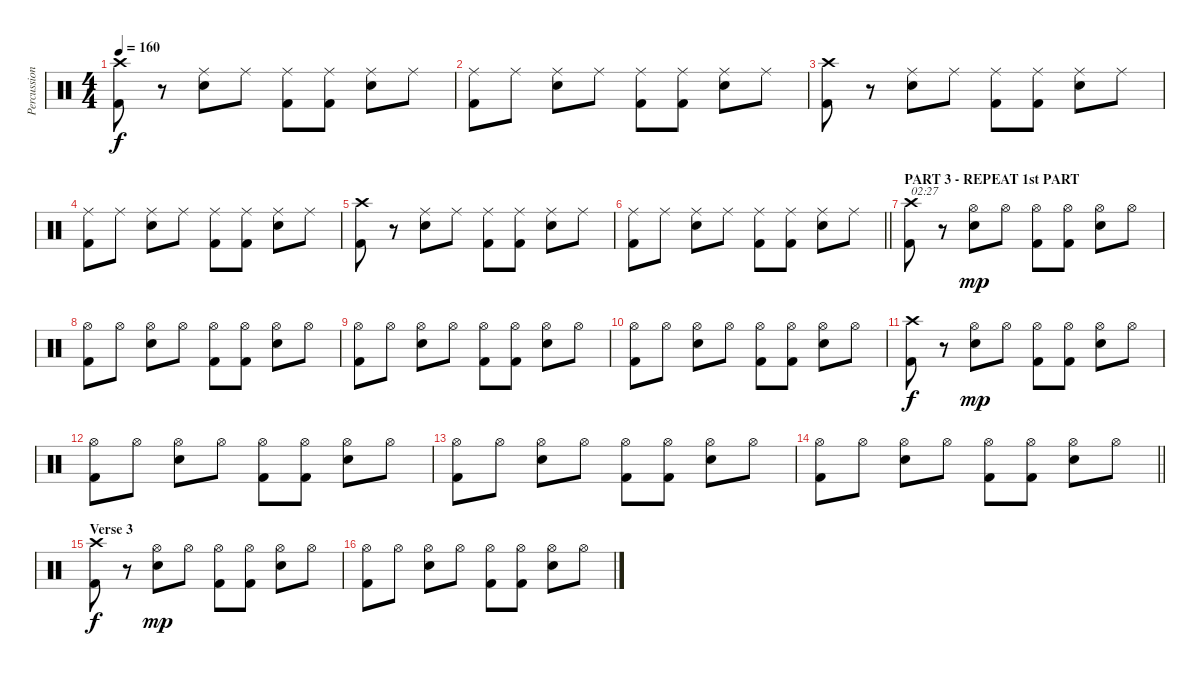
\track ("Percussion - album" "Percussion") {mute instrument percussion}
\staff {score}
\articulation defaults
\ts (4 4)
\tempo 160
\clef neutral
\ks c
("Crash high (hit)" "Kick (hit) 2").8{dy f} r.8 ("Ride (middle)" "Snare (hit) 2").8 "Ride (middle)".8 ("Ride (middle)" "Kick (hit) 2").8 ("Ride (middle)" "Kick (hit) 2").8 ("Ride (middle)" "Snare (hit) 2").8 "Ride (middle)".8 |
("Ride (middle)" "Kick (hit) 2").8 "Ride (middle)".8 ("Ride (middle)" "Snare (hit) 2").8 "Ride (middle)".8 ("Ride (middle)" "Kick (hit) 2").8 ("Ride (middle)" "Kick (hit) 2").8 ("Ride (middle)" "Snare (hit) 2").8 "Ride (middle)".8 |
("Crash high (hit)" "Kick (hit) 2").8 r.8 ("Ride (middle)" "Snare (hit) 2").8 "Ride (middle)".8 ("Ride (middle)" "Kick (hit) 2").8 ("Ride (middle)" "Kick (hit) 2").8 ("Ride (middle)" "Snare (hit) 2").8 "Ride (middle)".8 |
("Ride (middle)" "Kick (hit) 2").8 "Ride (middle)".8 ("Ride (middle)" "Snare (hit) 2").8 "Ride (middle)".8 ("Ride (middle)" "Kick (hit) 2").8 ("Ride (middle)" "Kick (hit) 2").8 ("Ride (middle)" "Snare (hit) 2").8 "Ride (middle)".8 |
("Crash high (hit)" "Kick (hit) 2").8 r.8 ("Ride (middle)" "Snare (hit) 2").8 "Ride (middle)".8 ("Ride (middle)" "Kick (hit) 2").8 ("Ride (middle)" "Kick (hit) 2").8 ("Ride (middle)" "Snare (hit) 2").8 "Ride (middle)".8 |
\barLineRight lightlight
("Ride (middle)" "Kick (hit) 2").8 "Ride (middle)".8 ("Ride (middle)" "Snare (hit) 2").8 "Ride (middle)".8 ("Ride (middle)" "Kick (hit) 2").8 ("Ride (middle)" "Kick (hit) 2").8 ("Ride (middle)" "Snare (hit) 2").8 "Ride (middle)".8 |
\section ("" "PART 3 - REPEAT 1st PART")
("Crash high (hit)" "Kick (hit) 2").8{txt "02:27"} r.8 ("Hi-Hat (open)" "Snare (hit) 2").8{dy mp} "Hi-Hat (open)".8 ("Hi-Hat (open)" "Kick (hit) 2").8 ("Hi-Hat (open)" "Kick (hit) 2").8 ("Hi-Hat (open)" "Snare (hit) 2").8 "Hi-Hat (open)".8 |
("Hi-Hat (open)" "Kick (hit) 2").8 "Hi-Hat (open)".8 ("Hi-Hat (open)" "Snare (hit) 2").8 "Hi-Hat (open)".8 ("Hi-Hat (open)" "Kick (hit) 2").8 ("Hi-Hat (open)" "Kick (hit) 2").8 ("Hi-Hat (open)" "Snare (hit) 2").8 "Hi-Hat (open)".8 |
("Hi-Hat (open)" "Kick (hit) 2").8 "Hi-Hat (open)".8 ("Hi-Hat (open)" "Snare (hit) 2").8 "Hi-Hat (open)".8 ("Hi-Hat (open)" "Kick (hit) 2").8 ("Hi-Hat (open)" "Kick (hit) 2").8 ("Hi-Hat (open)" "Snare (hit) 2").8 "Hi-Hat (open)".8 |
("Hi-Hat (open)" "Kick (hit) 2").8 "Hi-Hat (open)".8 ("Hi-Hat (open)" "Snare (hit) 2").8 "Hi-Hat (open)".8 ("Hi-Hat (open)" "Kick (hit) 2").8 ("Hi-Hat (open)" "Kick (hit) 2").8 ("Hi-Hat (open)" "Snare (hit) 2").8 "Hi-Hat (open)".8 |
("Crash high (hit)" "Kick (hit) 2").8{dy f} r.8 ("Hi-Hat (open)" "Snare (hit) 2").8{dy mp} "Hi-Hat (open)".8 ("Hi-Hat (open)" "Kick (hit) 2").8 ("Hi-Hat (open)" "Kick (hit) 2").8 ("Hi-Hat (open)" "Snare (hit) 2").8 "Hi-Hat (open)".8 |
("Hi-Hat (open)" "Kick (hit) 2").8 "Hi-Hat (open)".8 ("Hi-Hat (open)" "Snare (hit) 2").8 "Hi-Hat (open)".8 ("Hi-Hat (open)" "Kick (hit) 2").8 ("Hi-Hat (open)" "Kick (hit) 2").8 ("Hi-Hat (open)" "Snare (hit) 2").8 "Hi-Hat (open)".8 |
("Hi-Hat (open)" "Kick (hit) 2").8 "Hi-Hat (open)".8 ("Hi-Hat (open)" "Snare (hit) 2").8 "Hi-Hat (open)".8 ("Hi-Hat (open)" "Kick (hit) 2").8 ("Hi-Hat (open)" "Kick (hit) 2").8 ("Hi-Hat (open)" "Snare (hit) 2").8 "Hi-Hat (open)".8 |
\barLineRight lightlight
("Hi-Hat (open)" "Kick (hit) 2").8 "Hi-Hat (open)".8 ("Hi-Hat (open)" "Snare (hit) 2").8 "Hi-Hat (open)".8 ("Hi-Hat (open)" "Kick (hit) 2").8 ("Hi-Hat (open)" "Kick (hit) 2").8 ("Hi-Hat (open)" "Snare (hit) 2").8 "Hi-Hat (open)".8 |
\section ("" "Verse 3")
("Crash high (hit)" "Kick (hit) 2").8{dy f} r.8 ("Hi-Hat (open)" "Snare (hit) 2").8{dy mp} "Hi-Hat (open)".8 ("Hi-Hat (open)" "Kick (hit) 2").8 ("Hi-Hat (open)" "Kick (hit) 2").8 ("Hi-Hat (open)" "Snare (hit) 2").8 "Hi-Hat (open)".8 |
("Hi-Hat (open)" "Kick (hit) 2").8 "Hi-Hat (open)".8 ("Hi-Hat (open)" "Snare (hit) 2").8 "Hi-Hat (open)".8 ("Hi-Hat (open)" "Kick (hit) 2").8 ("Hi-Hat (open)" "Kick (hit) 2").8 ("Hi-Hat (open)" "Snare (hit) 2").8 "Hi-Hat (open)".8
